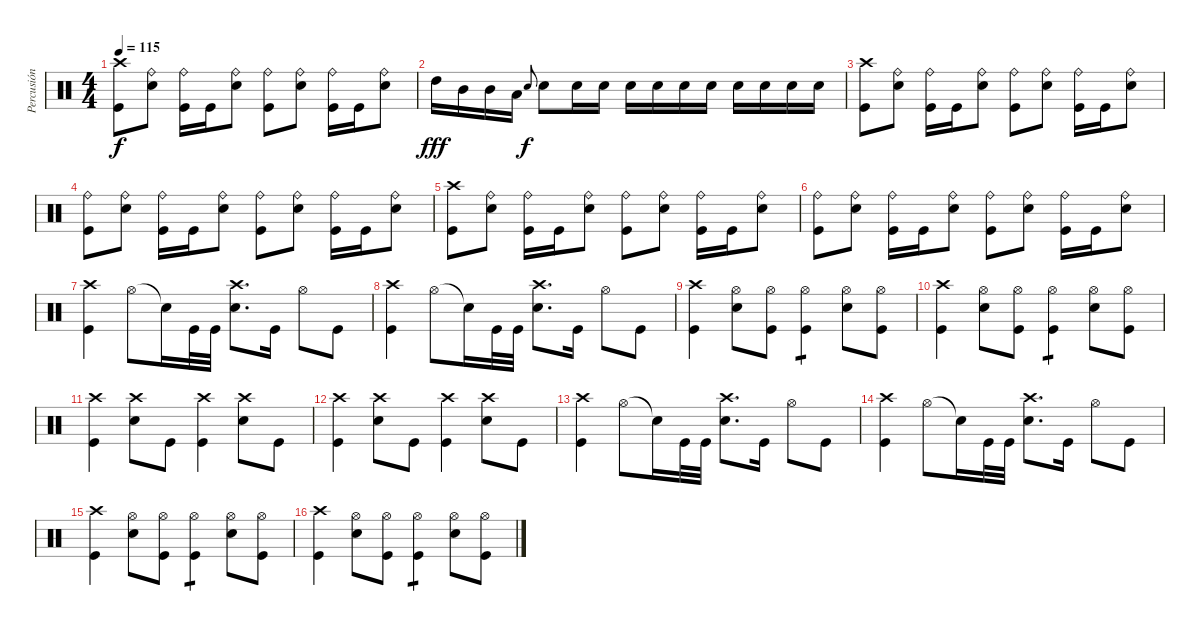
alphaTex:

\track ("Percusión" "Percusión") {instrument percussion}
\staff {score}
\articulation defaults
\ts (4 4)
\tempo 115
\clef neutral
\ks c
("Crash high (hit)" "Kick (hit)").8{dy f} ("Electric Snare (hit)" "Ride (bell)").8 ("Ride (bell)" "Kick (hit)").16 "Kick (hit)".16 ("Electric Snare (hit)" "Ride (bell)").8 ("Ride (bell)" "Kick (hit)").8 ("Electric Snare (hit)" "Ride (bell)").8 ("Ride (bell)" "Kick (hit)").16 "Kick (hit)".16 ("Electric Snare (hit)" "Ride (bell)").8 |
"High Tom (hit)".16{dy fff} "Mid Tom (hit)".16 "Mid Tom (hit)".16 "Low Tom (hit)".16 "Electric Snare (hit)".8{gr onbeat dy f} "Electric Snare (hit)".8 "Electric Snare (hit)".16 "Electric Snare (hit)".16 "Electric Snare (hit)".16 "Electric Snare (hit)".16 "Electric Snare (hit)".16 "Electric Snare (hit)".16 "Electric Snare (hit)".16 "Electric Snare (hit)".16 "Electric Snare (hit)".16 "Electric Snare (hit)".16 |
("Crash high (hit)" "Kick (hit)").8 ("Electric Snare (hit)" "Ride (bell)").8 ("Ride (bell)" "Kick (hit)").16 "Kick (hit)".16 ("Electric Snare (hit)" "Ride (bell)").8 ("Ride (bell)" "Kick (hit)").8 ("Electric Snare (hit)" "Ride (bell)").8 ("Ride (bell)" "Kick (hit)").16 "Kick (hit)".16 ("Electric Snare (hit)" "Ride (bell)").8 |
("Ride (bell)" "Kick (hit)").8 ("Electric Snare (hit)" "Ride (bell)").8 ("Ride (bell)" "Kick (hit)").16 "Kick (hit)".16 ("Electric Snare (hit)" "Ride (bell)").8 ("Ride (bell)" "Kick (hit)").8 ("Electric Snare (hit)" "Ride (bell)").8 ("Ride (bell)" "Kick (hit)").16 "Kick (hit)".16 ("Electric Snare (hit)" "Ride (bell)").8 |
("Crash high (hit)" "Kick (hit)").8 ("Electric Snare (hit)" "Ride (bell)").8 ("Ride (bell)" "Kick (hit)").16 "Kick (hit)".16 ("Electric Snare (hit)" "Ride (bell)").8 ("Ride (bell)" "Kick (hit)").8 ("Electric Snare (hit)" "Ride (bell)").8 ("Ride (bell)" "Kick (hit)").16 "Kick (hit)".16 ("Electric Snare (hit)" "Ride (bell)").8 |
("Ride (bell)" "Kick (hit)").8 ("Electric Snare (hit)" "Ride (bell)").8 ("Ride (bell)" "Kick (hit)").16 "Kick (hit)".16 ("Electric Snare (hit)" "Ride (bell)").8 ("Ride (bell)" "Kick (hit)").8 ("Electric Snare (hit)" "Ride (bell)").8 ("Ride (bell)" "Kick (hit)").16 "Kick (hit)".16 ("Electric Snare (hit)" "Ride (bell)").8 |
("Crash high (hit)" "Kick (hit)").4 "Hi-Hat (open)".8 "Snare (hit)"{t}.16 "Kick (hit)".32 "Kick (hit)".32 ("Crash high (hit)" "Electric Snare (hit)").8{d} "Kick (hit)".16 "Hi-Hat (open)".8 "Kick (hit)".8 |
("Crash high (hit)" "Kick (hit)").4 "Hi-Hat (open)".8 "Snare (hit)"{t}.16 "Kick (hit)".32 "Kick (hit)".32 ("Crash high (hit)" "Electric Snare (hit)").8{d} "Kick (hit)".16 "Hi-Hat (open)".8 "Kick (hit)".8 |
("Crash high (hit)" "Kick (hit)").4 ("Electric Snare (hit)" "Hi-Hat (open)").8 ("Hi-Hat (open)" "Kick (hit)").8 ("Hi-Hat (open)" "Kick (hit)").4{tp 1} ("Electric Snare (hit)" "Hi-Hat (open)").8 ("Hi-Hat (open)" "Kick (hit)").8 |
("Crash high (hit)" "Kick (hit)").4 ("Electric Snare (hit)" "Hi-Hat (open)").8 ("Hi-Hat (open)" "Kick (hit)").8 ("Hi-Hat (open)" "Kick (hit)").4{tp 1} ("Electric Snare (hit)" "Hi-Hat (open)").8 ("Hi-Hat (open)" "Kick (hit)").8 |
("Crash high (hit)" "Kick (hit)").4 ("Crash high (hit)" "Electric Snare (hit)").8 "Kick (hit)".8 ("Crash high (hit)" "Kick (hit)").4 ("Crash high (hit)" "Electric Snare (hit)").8 "Kick (hit)".8 |
("Crash high (hit)" "Kick (hit)").4 ("Crash high (hit)" "Electric Snare (hit)").8 "Kick (hit)".8 ("Crash high (hit)" "Kick (hit)").4 ("Crash high (hit)" "Electric Snare (hit)").8 "Kick (hit)".8 |
("Crash high (hit)" "Kick (hit)").4 "Hi-Hat (open)".8 "Snare (hit)"{t}.16 "Kick (hit)".32 "Kick (hit)".32 ("Crash high (hit)" "Electric Snare (hit)").8{d} "Kick (hit)".16 "Hi-Hat (open)".8 "Kick (hit)".8 |
("Crash high (hit)" "Kick (hit)").4 "Hi-Hat (open)".8 "Snare (hit)"{t}.16 "Kick (hit)".32 "Kick (hit)".32 ("Crash high (hit)" "Electric Snare (hit)").8{d} "Kick (hit)".16 "Hi-Hat (open)".8 "Kick (hit)".8 |
("Crash high (hit)" "Kick (hit)").4 ("Electric Snare (hit)" "Hi-Hat (open)").8 ("Hi-Hat (open)" "Kick (hit)").8 ("Hi-Hat (open)" "Kick (hit)").4{tp 1} ("Electric Snare (hit)" "Hi-Hat (open)").8 ("Hi-Hat (open)" "Kick (hit)").8 |
("Crash high (hit)" "Kick (hit)").4 ("Electric Snare (hit)" "Hi-Hat (open)").8 ("Hi-Hat (open)" "Kick (hit)").8 ("Hi-Hat (open)" "Kick (hit)").4{tp 1} ("Electric Snare (hit)" "Hi-Hat (open)").8 ("Hi-Hat (open)" "Kick (hit)").8
